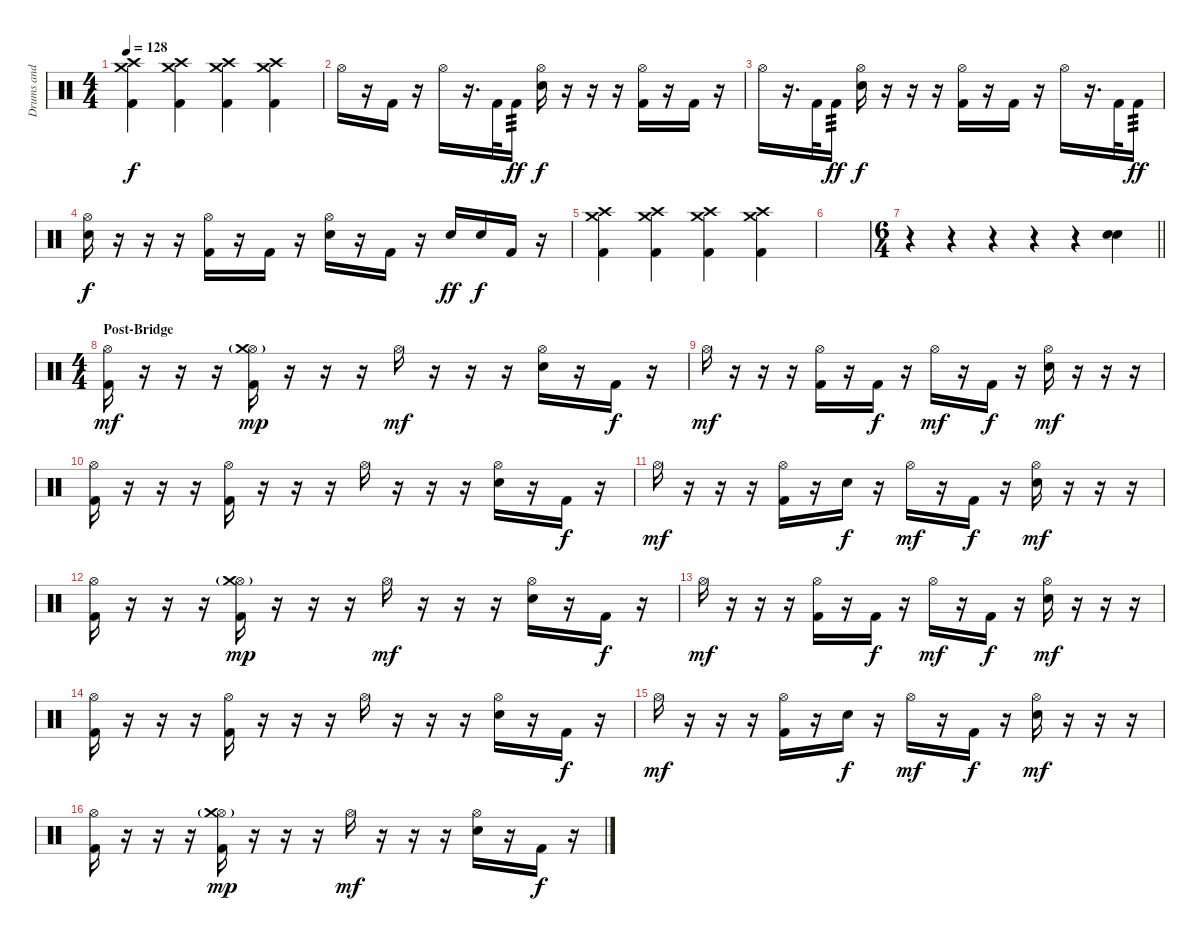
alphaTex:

\track ("Drums and Percussions" "Drums and ") {instrument percussion}
\staff {score}
\articulation defaults
\ts (4 4)
\tempo 128
\clef neutral
\ks c
("Crash medium (hit)" "Crash high (hit)" "Kick (hit) 2").4{dy f} ("Crash medium (hit)" "Crash high (hit)" "Kick (hit) 2").4 ("Crash medium (hit)" "Crash high (hit)" "Kick (hit) 2").4 ("Crash medium (hit)" "Crash high (hit)" "Kick (hit) 2").4 |
"Hi-Hat (open)".16 r.16 "Kick (hit) 2".16 r.16 "Hi-Hat (open)".16 r.16{d} "Kick (hit) 2".32 "Kick (hit) 2".16{tp 3 dy ff} ("Hi-Hat (open)" "Electric Snare (hit)").16{dy f} r.16 r.16 r.16 ("Hi-Hat (open)" "Kick (hit) 2").16 r.16 "Kick (hit) 2".16 r.16 |
"Hi-Hat (open)".16 r.16{d} "Kick (hit) 2".32 "Kick (hit) 2".16{tp 3 dy ff} ("Hi-Hat (open)" "Electric Snare (hit)").16{dy f} r.16 r.16 r.16 ("Hi-Hat (open)" "Kick (hit) 2").16 r.16 "Kick (hit) 2".16 r.16 "Hi-Hat (open)".16 r.16{d} "Kick (hit) 2".32 "Kick (hit) 2".16{tp 3 dy ff} |
("Hi-Hat (open)" "Electric Snare (hit)").16{dy f} r.16 r.16 r.16 ("Hi-Hat (open)" "Kick (hit) 2").16 r.16 "Kick (hit) 2".16 r.16 ("Hi-Hat (open)" "Electric Snare (hit)").16 r.16 "Kick (hit) 2".16 r.16 "Electric Snare (hit)".16{dy ff} "Electric Snare (hit)".16{dy f} "Kick (hit) 2".16 r.16 |
("Crash medium (hit)" "Crash high (hit)" "Kick (hit) 2").4 ("Crash medium (hit)" "Crash high (hit)" "Kick (hit) 2").4 ("Crash medium (hit)" "Crash high (hit)" "Kick (hit) 2").4 ("Crash medium (hit)" "Crash high (hit)" "Kick (hit) 2").4 |
|
\ts (6 4)
\barLineRight lightlight
r.4 r.4 r.4 r.4 r.4 ("Electric Snare (hit)" "Electric Snare (hit)").4{bd 60} |
\ts (4 4)
\section ("" "Post-Bridge")
("Hi-Hat (open)" "Kick (hit) 2").16{dy mf} r.16 r.16 r.16 ("Hi-Hat (open)" "Crash medium (hit)"{g} "Kick (hit) 2").16{dy mp} r.16 r.16 r.16 "Hi-Hat (open)".16{dy mf} r.16 r.16 r.16 ("Hi-Hat (open)" "Electric Snare (hit)").16 r.16 "Kick (hit) 2".16{dy f} r.16 |
"Hi-Hat (open)".16{dy mf} r.16 r.16 r.16 ("Hi-Hat (open)" "Kick (hit) 2").16 r.16 "Kick (hit) 2".16{dy f} r.16 "Hi-Hat (open)".16{dy mf} r.16 "Kick (hit) 2".16{dy f} r.16 ("Hi-Hat (open)" "Electric Snare (hit)").16{dy mf} r.16 r.16 r.16 |
("Hi-Hat (open)" "Kick (hit) 2").16 r.16 r.16 r.16 ("Hi-Hat (open)" "Kick (hit) 2").16 r.16 r.16 r.16 "Hi-Hat (open)".16 r.16 r.16 r.16 ("Hi-Hat (open)" "Electric Snare (hit)").16 r.16 "Kick (hit) 2".16{dy f} r.16 |
"Hi-Hat (open)".16{dy mf} r.16 r.16 r.16 ("Hi-Hat (open)" "Kick (hit) 2").16 r.16 "Electric Snare (hit)".16{dy f} r.16 "Hi-Hat (open)".16{dy mf} r.16 "Kick (hit) 2".16{dy f} r.16 ("Hi-Hat (open)" "Electric Snare (hit)").16{dy mf} r.16 r.16 r.16 |
("Hi-Hat (open)" "Kick (hit) 2").16 r.16 r.16 r.16 ("Hi-Hat (open)" "Crash medium (hit)"{g} "Kick (hit) 2").16{dy mp} r.16 r.16 r.16 "Hi-Hat (open)".16{dy mf} r.16 r.16 r.16 ("Hi-Hat (open)" "Electric Snare (hit)").16 r.16 "Kick (hit) 2".16{dy f} r.16 |
"Hi-Hat (open)".16{dy mf} r.16 r.16 r.16 ("Hi-Hat (open)" "Kick (hit) 2").16 r.16 "Kick (hit) 2".16{dy f} r.16 "Hi-Hat (open)".16{dy mf} r.16 "Kick (hit) 2".16{dy f} r.16 ("Hi-Hat (open)" "Electric Snare (hit)").16{dy mf} r.16 r.16 r.16 |
("Hi-Hat (open)" "Kick (hit) 2").16 r.16 r.16 r.16 ("Hi-Hat (open)" "Kick (hit) 2").16 r.16 r.16 r.16 "Hi-Hat (open)".16 r.16 r.16 r.16 ("Hi-Hat (open)" "Electric Snare (hit)").16 r.16 "Kick (hit) 2".16{dy f} r.16 |
"Hi-Hat (open)".16{dy mf} r.16 r.16 r.16 ("Hi-Hat (open)" "Kick (hit) 2").16 r.16 "Electric Snare (hit)".16{dy f} r.16 "Hi-Hat (open)".16{dy mf} r.16 "Kick (hit) 2".16{dy f} r.16 ("Hi-Hat (open)" "Electric Snare (hit)").16{dy mf} r.16 r.16 r.16 |
("Hi-Hat (open)" "Kick (hit) 2").16 r.16 r.16 r.16 ("Hi-Hat (open)" "Crash medium (hit)"{g} "Kick (hit) 2").16{dy mp} r.16 r.16 r.16 "Hi-Hat (open)".16{dy mf} r.16 r.16 r.16 ("Hi-Hat (open)" "Electric Snare (hit)").16 r.16 "Kick (hit) 2".16{dy f} r.16
